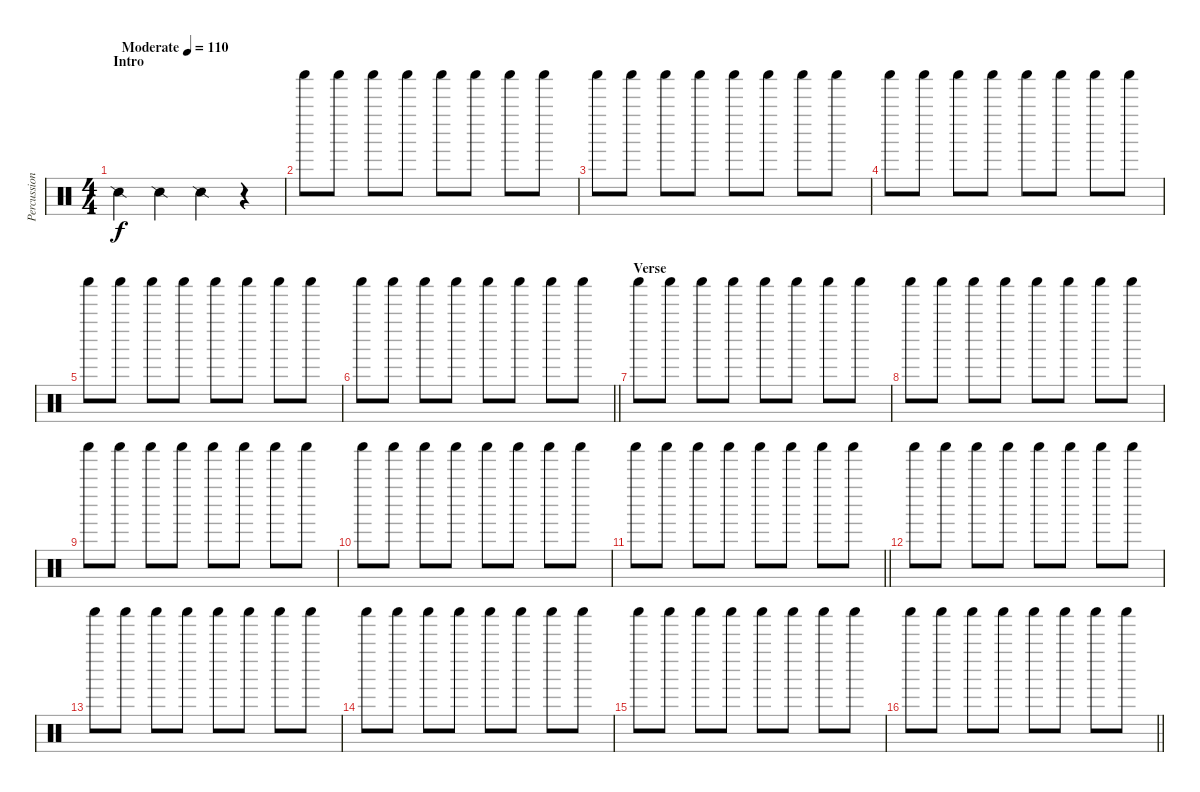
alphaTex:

\track ("Percussion" "Percussion") {instrument percussion}
\staff {score}
\articulation defaults
\ts (4 4)
\section ("" "Intro")
\tempo (110 "Moderate")
\clef neutral
\ks c "Snare (side stick) 2".4{dy f} "Snare (side stick) 2".4 "Snare (side stick) 2".4
r.4 |
"Shaker (hit)".8 "Shaker (hit)".8 "Shaker (hit)".8 "Shaker (hit)".8 "Shaker (hit)".8 "Shaker (hit)".8 "Shaker (hit)".8 "Shaker (hit)".8 |
"Shaker (hit)".8 "Shaker (hit)".8 "Shaker (hit)".8 "Shaker (hit)".8 "Shaker (hit)".8 "Shaker (hit)".8 "Shaker (hit)".8 "Shaker (hit)".8 |
"Shaker (hit)".8 "Shaker (hit)".8 "Shaker (hit)".8 "Shaker (hit)".8 "Shaker (hit)".8 "Shaker (hit)".8 "Shaker (hit)".8 "Shaker (hit)".8 |
"Shaker (hit)".8 "Shaker (hit)".8 "Shaker (hit)".8 "Shaker (hit)".8 "Shaker (hit)".8 "Shaker (hit)".8 "Shaker (hit)".8 "Shaker (hit)".8 |
\barLineRight lightlight "Shaker (hit)".8 "Shaker (hit)".8 "Shaker (hit)".8 "Shaker (hit)".8 "Shaker (hit)".8 "Shaker (hit)".8 "Shaker (hit)".8 "Shaker (hit)".8
|
\section ("" "Verse")
"Shaker (hit)".8 "Shaker (hit)".8 "Shaker (hit)".8 "Shaker (hit)".8 "Shaker (hit)".8 "Shaker (hit)".8 "Shaker (hit)".8 "Shaker (hit)".8 |
"Shaker (hit)".8 "Shaker (hit)".8 "Shaker (hit)".8 "Shaker (hit)".8 "Shaker (hit)".8 "Shaker (hit)".8 "Shaker (hit)".8 "Shaker (hit)".8 |
"Shaker (hit)".8 "Shaker (hit)".8 "Shaker (hit)".8 "Shaker (hit)".8 "Shaker (hit)".8 "Shaker (hit)".8 "Shaker (hit)".8 "Shaker (hit)".8 |
"Shaker (hit)".8 "Shaker (hit)".8 "Shaker (hit)".8 "Shaker (hit)".8 "Shaker (hit)".8 "Shaker (hit)".8 "Shaker (hit)".8 "Shaker (hit)".8 |
\barLineRight lightlight "Shaker (hit)".8 "Shaker (hit)".8 "Shaker (hit)".8 "Shaker (hit)".8 "Shaker (hit)".8 "Shaker (hit)".8 "Shaker (hit)".8 "Shaker (hit)".8
|
"Shaker (hit)".8 "Shaker (hit)".8 "Shaker (hit)".8 "Shaker (hit)".8 "Shaker (hit)".8 "Shaker (hit)".8 "Shaker (hit)".8 "Shaker (hit)".8 |
"Shaker (hit)".8 "Shaker (hit)".8 "Shaker (hit)".8 "Shaker (hit)".8 "Shaker (hit)".8 "Shaker (hit)".8 "Shaker (hit)".8 "Shaker (hit)".8 |
"Shaker (hit)".8 "Shaker (hit)".8 "Shaker (hit)".8 "Shaker (hit)".8 "Shaker (hit)".8 "Shaker (hit)".8 "Shaker (hit)".8 "Shaker (hit)".8 |
"Shaker (hit)".8 "Shaker (hit)".8 "Shaker (hit)".8 "Shaker (hit)".8 "Shaker (hit)".8 "Shaker (hit)".8 "Shaker (hit)".8 "Shaker (hit)".8 |
\barLineRight lightlight "Shaker (hit)".8 "Shaker (hit)".8 "Shaker (hit)".8 "Shaker (hit)".8 "Shaker (hit)".8 "Shaker (hit)".8 "Shaker (hit)".8 "Shaker (hit)".8
